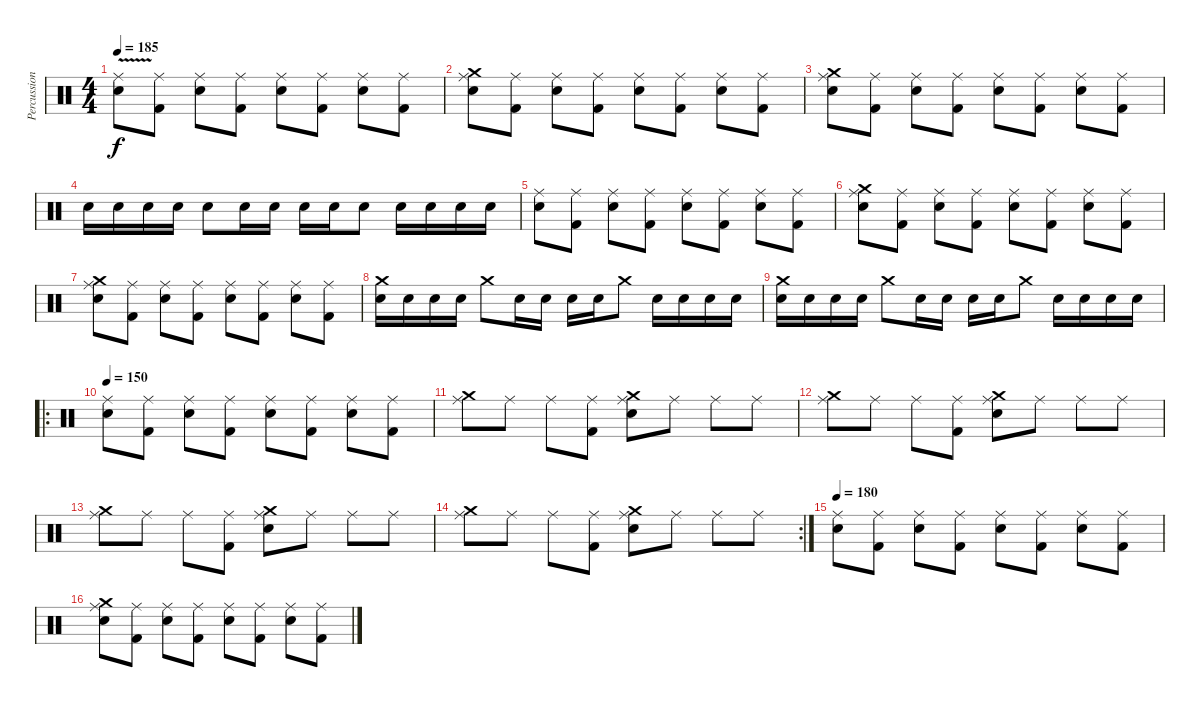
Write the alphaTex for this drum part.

\track ("Percussion" "Percussion") {instrument percussion}
\staff {score}
\articulation defaults
\ts (4 4)
\tempo 185
\tempo 165
\tempo 185
\clef neutral
\ks c
("Snare (hit) 2"{v} "Ride (middle)"{v}).8{dy f} ("Kick (hit) 2" "Ride (middle)").8 ("Snare (hit) 2" "Ride (middle)").8 ("Kick (hit) 2" "Ride (middle)").8 ("Snare (hit) 2" "Ride (middle)").8 ("Kick (hit) 2" "Ride (middle)").8 ("Snare (hit) 2" "Ride (middle)").8 ("Kick (hit) 2" "Ride (middle)").8 |
("Crash medium (hit)" "Snare (hit) 2" "Ride (middle)").8 ("Kick (hit) 2" "Ride (middle)").8 ("Snare (hit) 2" "Ride (middle)").8 ("Kick (hit) 2" "Ride (middle)").8 ("Snare (hit) 2" "Ride (middle)").8 ("Kick (hit) 2" "Ride (middle)").8 ("Snare (hit) 2" "Ride (middle)").8 ("Kick (hit) 2" "Ride (middle)").8 |
("Crash medium (hit)" "Snare (hit) 2" "Ride (middle)").8 ("Kick (hit) 2" "Ride (middle)").8 ("Snare (hit) 2" "Ride (middle)").8 ("Kick (hit) 2" "Ride (middle)").8 ("Snare (hit) 2" "Ride (middle)").8 ("Kick (hit) 2" "Ride (middle)").8 ("Snare (hit) 2" "Ride (middle)").8 ("Kick (hit) 2" "Ride (middle)").8 |
"Snare (hit) 2".16 "Snare (hit) 2".16 "Snare (hit) 2".16 "Snare (hit) 2".16 "Snare (hit) 2".8 "Snare (hit) 2".16 "Snare (hit) 2".16 "Snare (hit) 2".16 "Snare (hit) 2".16 "Snare (hit) 2".8 "Snare (hit) 2".16 "Snare (hit) 2".16 "Snare (hit) 2".16 "Snare (hit) 2".16 |
("Snare (hit) 2" "Ride (middle)").8 ("Kick (hit) 2" "Ride (middle)").8 ("Snare (hit) 2" "Ride (middle)").8 ("Kick (hit) 2" "Ride (middle)").8 ("Snare (hit) 2" "Ride (middle)").8 ("Kick (hit) 2" "Ride (middle)").8 ("Snare (hit) 2" "Ride (middle)").8 ("Kick (hit) 2" "Ride (middle)").8 |
("Crash medium (hit)" "Snare (hit) 2" "Ride (middle)").8 ("Kick (hit) 2" "Ride (middle)").8 ("Snare (hit) 2" "Ride (middle)").8 ("Kick (hit) 2" "Ride (middle)").8 ("Snare (hit) 2" "Ride (middle)").8 ("Kick (hit) 2" "Ride (middle)").8 ("Snare (hit) 2" "Ride (middle)").8 ("Kick (hit) 2" "Ride (middle)").8 |
("Crash medium (hit)" "Snare (hit) 2" "Ride (middle)").8 ("Kick (hit) 2" "Ride (middle)").8 ("Snare (hit) 2" "Ride (middle)").8 ("Kick (hit) 2" "Ride (middle)").8 ("Snare (hit) 2" "Ride (middle)").8 ("Kick (hit) 2" "Ride (middle)").8 ("Snare (hit) 2" "Ride (middle)").8 ("Kick (hit) 2" "Ride (middle)").8 |
("Crash medium (hit)" "Snare (hit) 2").16 "Snare (hit) 2".16 "Snare (hit) 2".16 "Snare (hit) 2".16 "Crash medium (hit)".8 "Snare (hit) 2".16 "Snare (hit) 2".16 "Snare (hit) 2".16 "Snare (hit) 2".16 "Crash medium (hit)".8 "Snare (hit) 2".16 "Snare (hit) 2".16 "Snare (hit) 2".16 "Snare (hit) 2".16 |
("Crash medium (hit)" "Snare (hit) 2").16 "Snare (hit) 2".16 "Snare (hit) 2".16 "Snare (hit) 2".16 "Crash medium (hit)".8 "Snare (hit) 2".16 "Snare (hit) 2".16 "Snare (hit) 2".16 "Snare (hit) 2".16 "Crash medium (hit)".8 "Snare (hit) 2".16 "Snare (hit) 2".16 "Snare (hit) 2".16 "Snare (hit) 2".16 |
\ro
\tempo 180
\tempo 150
("Snare (hit) 2" "Ride (middle)").8 ("Kick (hit) 2" "Ride (middle)").8 ("Snare (hit) 2" "Ride (middle)").8 ("Kick (hit) 2" "Ride (middle)").8 ("Snare (hit) 2" "Ride (middle)").8 ("Kick (hit) 2" "Ride (middle)").8 ("Snare (hit) 2" "Ride (middle)").8 ("Kick (hit) 2" "Ride (middle)").8 |
("Crash medium (hit)" "Ride (middle)").8 "Ride (middle)".8 "Ride (middle)".8 ("Kick (hit) 2" "Ride (middle)").8 ("Crash medium (hit)" "Snare (hit) 2" "Ride (middle)").8 "Ride (middle)".8 "Ride (middle)".8 "Ride (middle)".8 |
("Crash medium (hit)" "Ride (middle)").8 "Ride (middle)".8 "Ride (middle)".8 ("Kick (hit) 2" "Ride (middle)").8 ("Crash medium (hit)" "Snare (hit) 2" "Ride (middle)").8 "Ride (middle)".8 "Ride (middle)".8 "Ride (middle)".8 |
("Crash medium (hit)" "Ride (middle)").8 "Ride (middle)".8 "Ride (middle)".8 ("Kick (hit) 2" "Ride (middle)").8 ("Crash medium (hit)" "Snare (hit) 2" "Ride (middle)").8 "Ride (middle)".8 "Ride (middle)".8 "Ride (middle)".8 |
\rc 2
("Crash medium (hit)" "Ride (middle)").8 "Ride (middle)".8 "Ride (middle)".8 ("Kick (hit) 2" "Ride (middle)").8 ("Crash medium (hit)" "Snare (hit) 2" "Ride (middle)").8 "Ride (middle)".8 "Ride (middle)".8 "Ride (middle)".8 |
\tempo 180
("Snare (hit) 2" "Ride (middle)").8 ("Kick (hit) 2" "Ride (middle)").8 ("Snare (hit) 2" "Ride (middle)").8 ("Kick (hit) 2" "Ride (middle)").8 ("Snare (hit) 2" "Ride (middle)").8 ("Kick (hit) 2" "Ride (middle)").8 ("Snare (hit) 2" "Ride (middle)").8 ("Kick (hit) 2" "Ride (middle)").8 |
("Crash medium (hit)" "Snare (hit) 2" "Ride (middle)").8 ("Kick (hit) 2" "Ride (middle)").8 ("Snare (hit) 2" "Ride (middle)").8 ("Kick (hit) 2" "Ride (middle)").8 ("Snare (hit) 2" "Ride (middle)").8 ("Kick (hit) 2" "Ride (middle)").8 ("Snare (hit) 2" "Ride (middle)").8 ("Kick (hit) 2" "Ride (middle)").8
